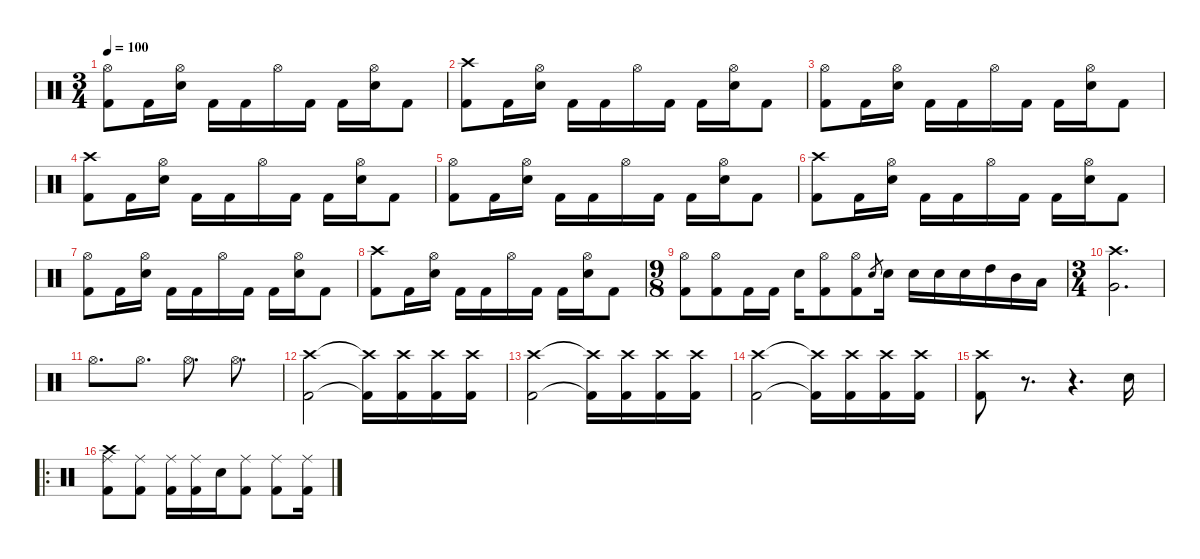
\defaultSystemsLayout 4
\hideDynamics
\bracketExtendMode nobrackets
\singleTrackTrackNamePolicy hidden
\multiTrackTrackNamePolicy hidden
\firstSystemTrackNameMode fullname
\firstSystemTrackNameOrientation horizontal
\otherSystemsTrackNameOrientation horizontal
\track ("Drums" "drm.") {instrument percussion}
\staff {score}
\articulation defaults
\ts (3 4)
\tempo 100
\clef neutral
\ks c
("Hi-Hat (open)" "Kick (hit) 2").8{dy f beam Down} "Kick (hit) 2".16{dy ff beam Down} ("Hi-Hat (open)" "Snare (hit) 2").16{dy f beam Down} "Kick (hit) 2".16{dy ff beam Down} "Kick (hit) 2".16{beam Down} "Hi-Hat (open)".16{dy f beam Down} "Kick (hit) 2".16{dy ff beam Down} "Kick (hit) 2".16{beam Down} ("Hi-Hat (open)" "Snare (hit) 2").16{dy f beam Down} "Kick (hit) 2".8{dy ff beam Down} |
("Crash high (hit)" "Kick (hit) 2").8{dy f beam Down} "Kick (hit) 2".16{dy ff beam Down} ("Hi-Hat (open)" "Snare (hit) 2").16{dy f beam Down} "Kick (hit) 2".16{dy ff beam Down} "Kick (hit) 2".16{beam Down} "Hi-Hat (open)".16{dy f beam Down} "Kick (hit) 2".16{dy ff beam Down} "Kick (hit) 2".16{beam Down} ("Hi-Hat (open)" "Snare (hit) 2").16{dy f beam Down} "Kick (hit) 2".8{dy ff beam Down} |
("Hi-Hat (open)" "Kick (hit) 2").8{dy f beam Down} "Kick (hit) 2".16{dy ff beam Down} ("Hi-Hat (open)" "Snare (hit) 2").16{dy f beam Down} "Kick (hit) 2".16{dy ff beam Down} "Kick (hit) 2".16{beam Down} "Hi-Hat (open)".16{dy f beam Down} "Kick (hit) 2".16{dy ff beam Down} "Kick (hit) 2".16{beam Down} ("Hi-Hat (open)" "Snare (hit) 2").16{dy f beam Down} "Kick (hit) 2".8{dy ff beam Down} |
("Crash high (hit)" "Kick (hit) 2").8{dy f beam Down} "Kick (hit) 2".16{dy ff beam Down} ("Hi-Hat (open)" "Snare (hit) 2").16{dy f beam Down} "Kick (hit) 2".16{dy ff beam Down} "Kick (hit) 2".16{beam Down} "Hi-Hat (open)".16{dy f beam Down} "Kick (hit) 2".16{dy ff beam Down} "Kick (hit) 2".16{beam Down} ("Hi-Hat (open)" "Snare (hit) 2").16{dy f beam Down} "Kick (hit) 2".8{dy ff beam Down} |
("Hi-Hat (open)" "Kick (hit) 2").8{dy f beam Down} "Kick (hit) 2".16{dy ff beam Down} ("Hi-Hat (open)" "Snare (hit) 2").16{dy f beam Down} "Kick (hit) 2".16{dy ff beam Down} "Kick (hit) 2".16{beam Down} "Hi-Hat (open)".16{dy f beam Down} "Kick (hit) 2".16{dy ff beam Down} "Kick (hit) 2".16{beam Down} ("Hi-Hat (open)" "Snare (hit) 2").16{dy f beam Down} "Kick (hit) 2".8{dy ff beam Down} |
("Crash high (hit)" "Kick (hit) 2").8{dy f beam Down} "Kick (hit) 2".16{dy ff beam Down} ("Hi-Hat (open)" "Snare (hit) 2").16{dy f beam Down} "Kick (hit) 2".16{dy ff beam Down} "Kick (hit) 2".16{beam Down} "Hi-Hat (open)".16{dy f beam Down} "Kick (hit) 2".16{dy ff beam Down} "Kick (hit) 2".16{beam Down} ("Hi-Hat (open)" "Snare (hit) 2").16{dy f beam Down} "Kick (hit) 2".8{dy ff beam Down} |
("Hi-Hat (open)" "Kick (hit) 2").8{dy f beam Down} "Kick (hit) 2".16{dy ff beam Down} ("Hi-Hat (open)" "Snare (hit) 2").16{dy f beam Down} "Kick (hit) 2".16{dy ff beam Down} "Kick (hit) 2".16{beam Down} "Hi-Hat (open)".16{dy f beam Down} "Kick (hit) 2".16{dy ff beam Down} "Kick (hit) 2".16{beam Down} ("Hi-Hat (open)" "Snare (hit) 2").16{dy f beam Down} "Kick (hit) 2".8{dy ff beam Down} |
("Crash high (hit)" "Kick (hit) 2").8{dy f beam Down} "Kick (hit) 2".16{dy ff beam Down} ("Hi-Hat (open)" "Snare (hit) 2").16{dy f beam Down} "Kick (hit) 2".16{dy ff beam Down} "Kick (hit) 2".16{beam Down} "Hi-Hat (open)".16{dy f beam Down} "Kick (hit) 2".16{dy ff beam Down} "Kick (hit) 2".16{beam Down} ("Hi-Hat (open)" "Snare (hit) 2").16{dy f beam Down} "Kick (hit) 2".8{dy ff beam Down} |
\ts (9 8)
\beaming (8 3 3 3)
("Hi-Hat (open)" "Kick (hit) 2").8{dy f beam Down} ("Hi-Hat (open)" "Kick (hit) 2").8{beam Down} "Kick (hit) 2".16{beam Down} "Kick (hit) 2".16{beam Down} "Snare (hit) 2".16{beam Down} ("Hi-Hat (open)" "Kick (hit) 2").8{beam Down} ("Hi-Hat (open)" "Kick (hit) 2").8{beam Down} "Electric Snare (hit)".8{gr dy mf beam Up} "Snare (hit) 2".16{dy f beam Down} "Snare (hit) 2".16{beam Down} "Snare (hit) 2".16{beam Down} "Snare (hit) 2".16{beam Down} "High Tom (hit)".16{beam Down} "Mid Tom (hit)".16{beam Down} "Low Tom (hit)".16{beam Down} |
\ts (3 4)
\beaming (8 2 2 2)
("Crash high (hit)" "Very Low Tom (hit)").2{d beam Down} |
"Hi-Hat (open)".8{d beam Down} "Hi-Hat (open)".8{d beam Down} "Hi-Hat (open)".8{d beam Down} "Hi-Hat (open)".8{d beam Down} |
("Crash high (hit)" "Kick (hit) 2").2{beam Down} ("Crash high (hit)"{t} "Kick (hit) 2"{t}).16{beam Down} ("Crash high (hit)" "Kick (hit) 2").16{dy mf beam Down} ("Crash high (hit)" "Kick (hit) 2").16{dy f beam Down} ("Crash high (hit)" "Kick (hit) 2").16{dy mf beam Down} |
("Crash high (hit)" "Kick (hit) 2").2{dy f beam Down} ("Crash high (hit)"{t} "Kick (hit) 2"{t}).16{beam Down} ("Crash high (hit)" "Kick (hit) 2").16{dy mf beam Down} ("Crash high (hit)" "Kick (hit) 2").16{dy f beam Down} ("Crash high (hit)" "Kick (hit) 2").16{dy mf beam Down} |
("Crash high (hit)" "Kick (hit) 2").2{dy f beam Down} ("Crash high (hit)"{t} "Kick (hit) 2"{t}).16{beam Down} ("Crash high (hit)" "Kick (hit) 2").16{dy mf beam Down} ("Crash high (hit)" "Kick (hit) 2").16{dy f beam Down} ("Crash high (hit)" "Kick (hit) 2").16{dy mf beam Down} |
("Crash high (hit)" "Kick (hit) 2").8{dy f beam Down} r.8{d beam Down} r.4{d beam Down} "Snare (hit) 2".16{beam Down} |
\ro
("Ride (middle)" "Crash high (hit)" "Kick (hit) 2").8{beam Down} ("Ride (middle)" "Kick (hit) 2").8{beam Down} ("Ride (middle)" "Kick (hit) 2").16{beam Down} ("Ride (middle)" "Kick (hit) 2").16{beam Down} "Snare (hit) 2".16{beam Down} ("Ride (middle)" "Kick (hit) 2").8{beam Down} ("Ride (middle)" "Kick (hit) 2").8{beam Down} ("Ride (middle)" "Kick (hit) 2").16{beam Down}
